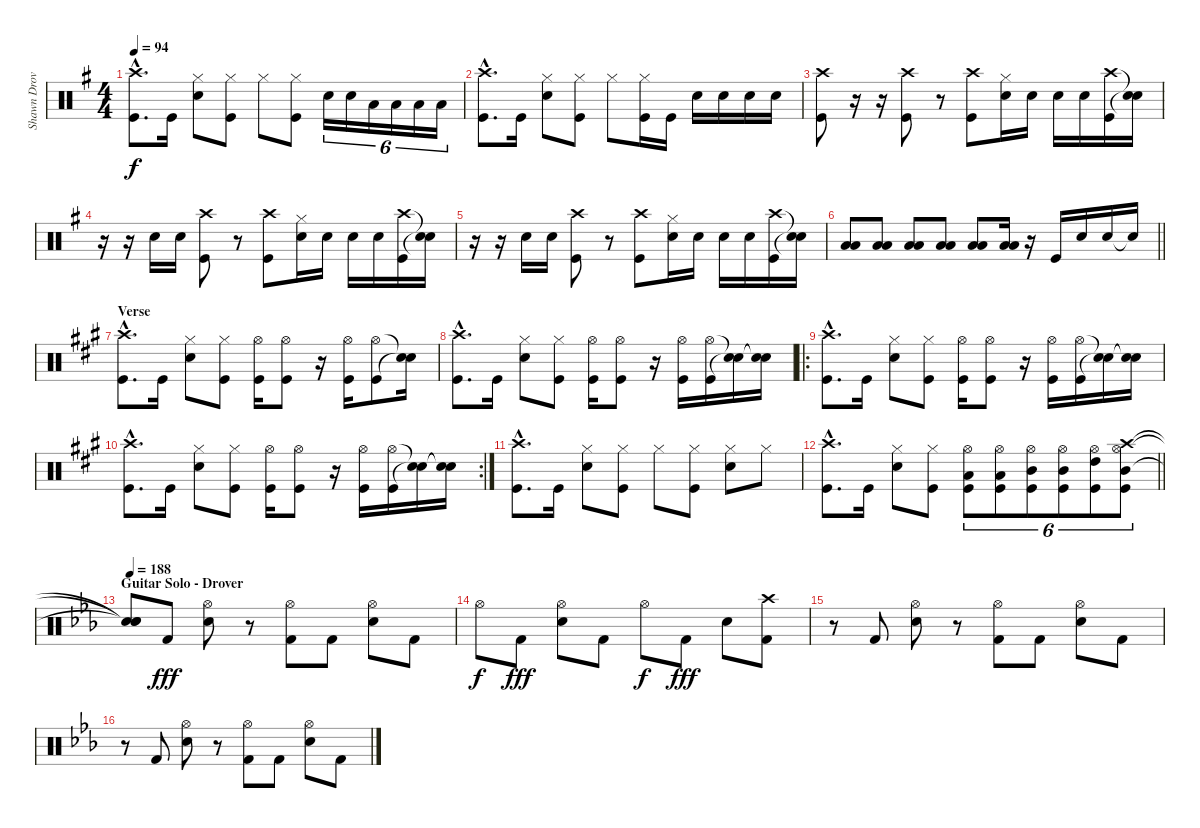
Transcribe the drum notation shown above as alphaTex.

\track ("Shawn Drover" "Shawn Drov") {instrument percussion}
\staff {score}
\articulation defaults
\ts (4 4)
\tempo 94
\clef neutral
\ks g
("Kick (hit)"{hac} "Crash high (hit)"{hac}).8{d dy f} "Kick (hit)".16 ("Hi-Hat (closed)" "Snare (hit) 2").8 ("Kick (hit)" "Hi-Hat (closed)").8 "Hi-Hat (closed)".8 ("Kick (hit)" "Hi-Hat (closed)").8 "Snare (hit) 2".16{tu (6 4)} "Snare (hit) 2".16{tu (6 4)} "Low Tom (hit)".16{tu (6 4)} "Low Tom (hit)".16{tu (6 4)} "Low Tom (hit)".16{tu (6 4)} "Low Tom (hit)".16{tu (6 4)} |
("Kick (hit)"{hac} "Crash high (hit)"{hac}).8{d} "Kick (hit)".16 ("Hi-Hat (closed)" "Snare (hit) 2").8 ("Kick (hit)" "Hi-Hat (closed)").8 "Hi-Hat (closed)".8 ("Kick (hit)" "Hi-Hat (closed)").16 "Kick (hit)".16 "Snare (hit) 2".16 "Snare (hit) 2".16 "Snare (hit) 2".16 "Snare (hit) 2".16 |
("Kick (hit)" "Crash high (hit)").8 r.16 r.16 ("Kick (hit)" "Crash high (hit)").8 r.8 ("Kick (hit)" "Crash high (hit)").8 ("Hi-Hat (closed)" "Snare (hit) 2").16 "Snare (hit) 2".16 "Snare (hit) 2".16 "Snare (hit) 2".16 ("Kick (hit)" "Crash high (hit)").16 ("Snare (hit)"{t} "Snare (hit)"{t}).16 |
r.16 r.16 "Snare (hit) 2".16 "Snare (hit) 2".16 ("Kick (hit)" "Crash high (hit)").8 r.8 ("Kick (hit)" "Crash high (hit)").8 ("Hi-Hat (closed)" "Snare (hit) 2").16 "Snare (hit) 2".16 "Snare (hit) 2".16 "Snare (hit) 2".16 ("Kick (hit)" "Crash high (hit)").16 ("Snare (hit)"{t} "Snare (hit)"{t}).16 |
r.16 r.16 "Snare (hit) 2".16 "Snare (hit) 2".16 ("Kick (hit)" "Crash high (hit)").8 r.8 ("Kick (hit)" "Crash high (hit)").8 ("Hi-Hat (closed)" "Snare (hit) 2").16 "Snare (hit) 2".16 "Snare (hit) 2".16 "Snare (hit) 2".16 ("Kick (hit)" "Crash high (hit)").16 ("Snare (hit)"{t} "Snare (hit)"{t}).16 |
\barLineRight lightlight
("Low Tom (hit)" "Low Tom (hit)").8 ("Low Tom (hit)" "Low Tom (hit)").8 ("Low Tom (hit)" "Low Tom (hit)").8 ("Low Tom (hit)" "Low Tom (hit)").8 ("Low Tom (hit)" "Low Tom (hit)").8 ("Low Tom (hit)" "Low Tom (hit)").16 r.16 "Kick (hit)".16 "Snare (hit) 2".16 "Snare (hit) 2".16 "Snare (hit)"{t}.16 |
\section ("" "Verse")
\ks a
("Kick (hit)"{hac} "Crash high (hit)"{hac}).8{d} "Kick (hit)".16 ("Hi-Hat (closed)" "Snare (hit) 2").8 ("Kick (hit)" "Hi-Hat (closed)").8 ("Kick (hit)" "Hi-Hat (open)").16 ("Kick (hit)" "Hi-Hat (open)").8 r.16 ("Hi-Hat (open)" "Kick (hit)").16 ("Hi-Hat (open)" "Kick (hit)").8 ("Snare (hit)"{t} "Snare (hit)"{t}).16 |
("Kick (hit)"{hac} "Crash high (hit)"{hac}).8{d} "Kick (hit)".16 ("Hi-Hat (closed)" "Snare (hit) 2").8 ("Kick (hit)" "Hi-Hat (closed)").8 ("Kick (hit)" "Hi-Hat (open)").16 ("Kick (hit)" "Hi-Hat (open)").8 r.16 ("Hi-Hat (open)" "Kick (hit)").16 ("Hi-Hat (open)" "Kick (hit)").16 ("Snare (hit)"{t} "Snare (hit)"{t}).16 ("Snare (hit)"{t} "Snare (hit)"{t}).16 |
\ro
("Kick (hit)"{hac} "Crash high (hit)"{hac}).8{d} "Kick (hit)".16 ("Hi-Hat (closed)" "Snare (hit) 2").8 ("Kick (hit)" "Hi-Hat (closed)").8 ("Kick (hit)" "Hi-Hat (open)").16 ("Kick (hit)" "Hi-Hat (open)").8 r.16 ("Hi-Hat (open)" "Kick (hit)").16 ("Hi-Hat (open)" "Kick (hit)").16 ("Snare (hit)"{t} "Snare (hit)"{t}).16 ("Snare (hit)"{t} "Snare (hit)"{t}).16 |
\rc 2
("Kick (hit)"{hac} "Crash high (hit)"{hac}).8{d} "Kick (hit)".16 ("Hi-Hat (closed)" "Snare (hit) 2").8 ("Kick (hit)" "Hi-Hat (closed)").8 ("Kick (hit)" "Hi-Hat (open)").16 ("Kick (hit)" "Hi-Hat (open)").8 r.16 ("Hi-Hat (open)" "Kick (hit)").16 ("Hi-Hat (open)" "Kick (hit)").16 ("Snare (hit)"{t} "Snare (hit)"{t}).16 ("Snare (hit)"{t} "Snare (hit)"{t}).16 |
("Kick (hit)"{hac} "Crash high (hit)"{hac}).8{d} "Kick (hit)".16 ("Hi-Hat (closed)" "Snare (hit) 2").8 ("Kick (hit)" "Hi-Hat (closed)").8 "Hi-Hat (closed)".8 ("Kick (hit)" "Hi-Hat (closed)").8 ("Hi-Hat (closed)" "Snare (hit) 2").8 "Hi-Hat (closed)".8 |
\barLineRight lightlight
("Kick (hit)"{hac} "Crash high (hit)"{hac}).8{d} "Kick (hit)".16 ("Hi-Hat (closed)" "Snare (hit) 2").8 ("Kick (hit)" "Hi-Hat (closed)").8 ("Hi-Hat (open)" "Low Tom (hit)" "Kick (hit)").8{tu (6 4)} ("Hi-Hat (open)" "Low Tom (hit)" "Kick (hit)").8{tu (6 4)} ("Hi-Hat (open)" "Mid Tom (hit)" "Kick (hit)").8{tu (6 4)} ("Hi-Hat (open)" "Mid Tom (hit)" "Kick (hit)").8{tu (6 4)} ("Hi-Hat (open)" "High Tom (hit)" "Kick (hit)").8{tu (6 4)} ("Crash high (hit)" "Hi-Hat (open)" "Mid Tom (hit)" "Kick (hit)").8{tu (6 4)} |
\section ("" "Guitar Solo - Drover")
\tempo 188
\ks eb
("Snare (hit)"{t} "Snare (hit)"{t} "Snare (hit)"{t}).8 "Kick (hit) 2".8{dy fff} ("Hi-Hat (open)" "Snare (hit) 2").8 r.8 ("Hi-Hat (open)" "Kick (hit) 2").8 "Kick (hit) 2".8 ("Hi-Hat (open)" "Snare (hit) 2").8 "Kick (hit) 2".8 |
"Hi-Hat (open)".8{dy f} "Kick (hit) 2".8{dy fff} ("Hi-Hat (open)" "Snare (hit) 2").8 "Kick (hit) 2".8 "Hi-Hat (open)".8{dy f} "Kick (hit) 2".8{dy fff} "Snare (hit) 2".8 ("Crash high (hit)" "Kick (hit) 2").8 |
r.8 "Kick (hit) 2".8 ("Hi-Hat (open)" "Snare (hit) 2").8 r.8 ("Hi-Hat (open)" "Kick (hit) 2").8 "Kick (hit) 2".8 ("Hi-Hat (open)" "Snare (hit) 2").8 "Kick (hit) 2".8 |
r.8 "Kick (hit) 2".8 ("Hi-Hat (open)" "Snare (hit) 2").8 r.8 ("Hi-Hat (open)" "Kick (hit) 2").8 "Kick (hit) 2".8 ("Hi-Hat (open)" "Snare (hit) 2").8 "Kick (hit) 2".8
